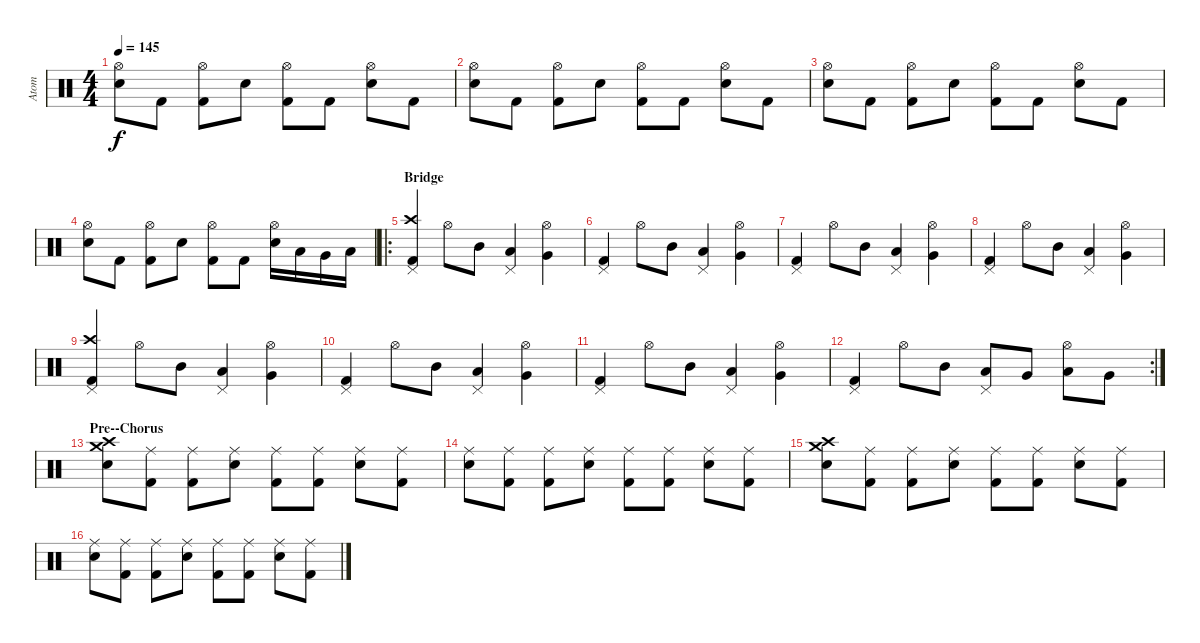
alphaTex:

\track ("Atom" "Atom") {instrument percussion}
\staff {score}
\articulation defaults
\ts (4 4)
\tempo 145
\clef neutral
\ks c
("Electric Snare (hit)" "Hi-Hat (open)").8{dy f volume 16} "Kick (hit) 2".8 ("Kick (hit) 2" "Hi-Hat (open)").8 "Electric Snare (hit)".8 ("Kick (hit) 2" "Hi-Hat (open)").8 "Kick (hit) 2".8 ("Electric Snare (hit)" "Hi-Hat (open)").8 "Kick (hit) 2".8 |
("Electric Snare (hit)" "Hi-Hat (open)").8{volume 16} "Kick (hit) 2".8 ("Kick (hit) 2" "Hi-Hat (open)").8 "Electric Snare (hit)".8 ("Kick (hit) 2" "Hi-Hat (open)").8 "Kick (hit) 2".8 ("Electric Snare (hit)" "Hi-Hat (open)").8 "Kick (hit) 2".8 |
("Electric Snare (hit)" "Hi-Hat (open)").8{volume 16} "Kick (hit) 2".8 ("Kick (hit) 2" "Hi-Hat (open)").8 "Electric Snare (hit)".8 ("Kick (hit) 2" "Hi-Hat (open)").8 "Kick (hit) 2".8 ("Electric Snare (hit)" "Hi-Hat (open)").8 "Kick (hit) 2".8 |
("Electric Snare (hit)" "Hi-Hat (open)").8{volume 16} "Kick (hit) 2".8 ("Kick (hit) 2" "Hi-Hat (open)").8 "Electric Snare (hit)".8 ("Kick (hit) 2" "Hi-Hat (open)").8 "Kick (hit) 2".8 ("Electric Snare (hit)" "Hi-Hat (open)").16 "Low Tom (hit)".16 "Very Low Tom (hit)".16 "Low Floor Tom (hit)".16 |
\ro
\section ("" "Bridge")
("Crash high (hit)" "Pedal Hi-Hat (hit)" "Kick (hit) 2").4 "Hi-Hat (open)".8 "Mid Tom (hit)".8 ("Pedal Hi-Hat (hit)" "Low Tom (hit)").4 ("Hi-Hat (open)" "Very Low Tom (hit)").4 |
("Pedal Hi-Hat (hit)" "Kick (hit) 2").4 "Hi-Hat (open)".8 "Mid Tom (hit)".8 ("Pedal Hi-Hat (hit)" "Low Tom (hit)").4 ("Hi-Hat (open)" "Very Low Tom (hit)").4 |
("Pedal Hi-Hat (hit)" "Kick (hit) 2").4 "Hi-Hat (open)".8 "Mid Tom (hit)".8 ("Pedal Hi-Hat (hit)" "Low Tom (hit)").4 ("Hi-Hat (open)" "Very Low Tom (hit)").4 |
("Pedal Hi-Hat (hit)" "Kick (hit) 2").4 "Hi-Hat (open)".8 "Mid Tom (hit)".8 ("Pedal Hi-Hat (hit)" "Low Tom (hit)").4 ("Hi-Hat (open)" "Very Low Tom (hit)").4 |
("Crash high (hit)" "Pedal Hi-Hat (hit)" "Kick (hit) 2").4 "Hi-Hat (open)".8 "Mid Tom (hit)".8 ("Pedal Hi-Hat (hit)" "Low Tom (hit)").4 ("Hi-Hat (open)" "Very Low Tom (hit)").4 |
("Pedal Hi-Hat (hit)" "Kick (hit) 2").4 "Hi-Hat (open)".8 "Mid Tom (hit)".8 ("Pedal Hi-Hat (hit)" "Low Tom (hit)").4 ("Hi-Hat (open)" "Very Low Tom (hit)").4 |
("Pedal Hi-Hat (hit)" "Kick (hit) 2").4 "Hi-Hat (open)".8 "Mid Tom (hit)".8 ("Pedal Hi-Hat (hit)" "Low Tom (hit)").4 ("Hi-Hat (open)" "Very Low Tom (hit)").4 |
\rc 2
("Pedal Hi-Hat (hit)" "Kick (hit) 2").4 "Hi-Hat (open)".8 "Mid Tom (hit)".8 ("Pedal Hi-Hat (hit)" "Low Tom (hit)").8 "Very Low Tom (hit)".8 ("Hi-Hat (open)" "Low Tom (hit)").8 "Very Low Tom (hit)".8 |
\section ("" "Pre--Chorus")
("Electric Snare (hit)" "Crash high (hit)" "Crash medium (hit)").8 ("Kick (hit) 2" "Ride (middle)").8 ("Kick (hit) 2" "Ride (middle)").8 ("Electric Snare (hit)" "Ride (middle)").8 ("Kick (hit) 2" "Ride (middle)").8 ("Kick (hit) 2" "Ride (middle)").8 ("Electric Snare (hit)" "Ride (middle)").8 ("Kick (hit) 2" "Ride (middle)").8 |
("Electric Snare (hit)" "Ride (middle)").8 ("Kick (hit) 2" "Ride (middle)").8 ("Kick (hit) 2" "Ride (middle)").8 ("Electric Snare (hit)" "Ride (middle)").8 ("Kick (hit) 2" "Ride (middle)").8 ("Kick (hit) 2" "Ride (middle)").8 ("Electric Snare (hit)" "Ride (middle)").8 ("Kick (hit) 2" "Ride (middle)").8 |
("Electric Snare (hit)" "Crash high (hit)" "Crash medium (hit)").8 ("Kick (hit) 2" "Ride (middle)").8 ("Kick (hit) 2" "Ride (middle)").8 ("Electric Snare (hit)" "Ride (middle)").8 ("Kick (hit) 2" "Ride (middle)").8 ("Kick (hit) 2" "Ride (middle)").8 ("Electric Snare (hit)" "Ride (middle)").8 ("Kick (hit) 2" "Ride (middle)").8 |
("Electric Snare (hit)" "Ride (middle)").8 ("Kick (hit) 2" "Ride (middle)").8 ("Kick (hit) 2" "Ride (middle)").8 ("Electric Snare (hit)" "Ride (middle)").8 ("Kick (hit) 2" "Ride (middle)").8 ("Kick (hit) 2" "Ride (middle)").8 ("Electric Snare (hit)" "Ride (middle)").8 ("Kick (hit) 2" "Ride (middle)").8
